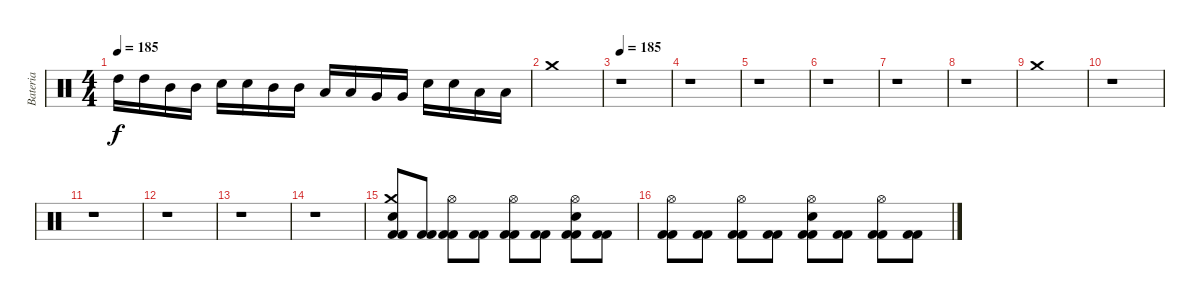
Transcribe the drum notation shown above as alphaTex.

\track ("Bateria" "Bateria") {instrument percussion}
\staff {score}
\articulation defaults
\ts (4 4)
\tempo 185
\clef neutral
\ks c "High Tom (hit)".16{dy f} "High Tom (hit)".16 "Mid Tom (hit)".16 "Mid Tom (hit)".16 "Electric Snare (hit)".16 "Electric Snare (hit)".16 "Mid Tom (hit)".16 "Mid Tom (hit)".16 "Low Tom (hit)".16 "Low Tom (hit)".16 "Very Low Tom (hit)".16 "Very Low Tom (hit)".16 "Electric Snare (hit)".16 "Electric Snare (hit)".16 "Low Floor Tom (hit)".16 "Low Floor Tom (hit)".16
|
"Crash medium (hit)".1 |
\tempo 185
r.1 |
r.1 |
r.1 |
r.1 |
r.1 |
r.1 |
"Crash medium (hit)".1 |
r.1 |
r.1 |
r.1 |
r.1 |
r.1 |
("Kick (hit) 2" "Kick (hit) 2" "Electric Snare (hit)" "Crash medium (hit)").8 ("Kick (hit) 2" "Kick (hit) 2").8 ("Kick (hit) 2" "Kick (hit) 2" "Hi-Hat (open)").8 ("Kick (hit) 2" "Kick (hit) 2").8 ("Kick (hit) 2" "Kick (hit) 2" "Hi-Hat (open)").8 ("Kick (hit) 2" "Kick (hit) 2").8 ("Kick (hit) 2" "Kick (hit) 2" "Electric Snare (hit)" "Hi-Hat (open)").8 ("Kick (hit) 2" "Kick (hit) 2").8 |
("Kick (hit) 2" "Kick (hit) 2" "Hi-Hat (open)").8 ("Kick (hit) 2" "Kick (hit) 2").8 ("Kick (hit) 2" "Kick (hit) 2" "Hi-Hat (open)").8 ("Kick (hit) 2" "Kick (hit) 2").8 ("Kick (hit) 2" "Kick (hit) 2" "Electric Snare (hit)" "Hi-Hat (open)").8 ("Kick (hit) 2" "Kick (hit) 2").8 ("Kick (hit) 2" "Kick (hit) 2" "Hi-Hat (open)").8 ("Kick (hit) 2" "Kick (hit) 2").8
